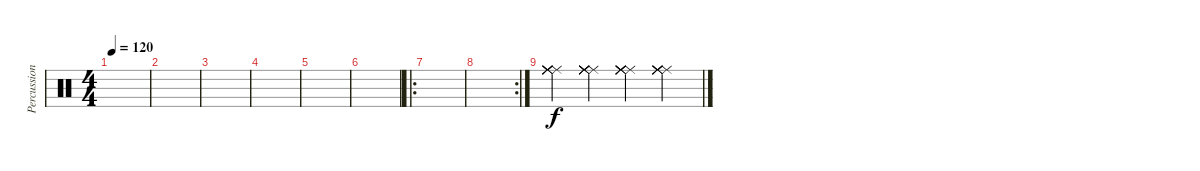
\track ("Percussion" "Percussion") {instrument percussion}
\staff {score}
\articulation defaults
\ts (4 4)
\tempo 120
\clef neutral
\ks c
|
|
|
|
|
|
\ro
|
\rc 2
|
("Ride (middle)" "Ride (middle)" "Ride (middle)" "Ride (middle)" "Ride (middle)" "Ride (middle)").4 ("Ride (middle)" "Ride (middle)" "Ride (middle)" "Ride (middle)" "Ride (middle)" "Ride (middle)").4 ("Ride (middle)" "Ride (middle)" "Ride (middle)" "Ride (middle)" "Ride (middle)" "Ride (middle)").4 ("Ride (middle)" "Ride (middle)" "Ride (middle)" "Ride (middle)" "Ride (middle)" "Ride (middle)").4
